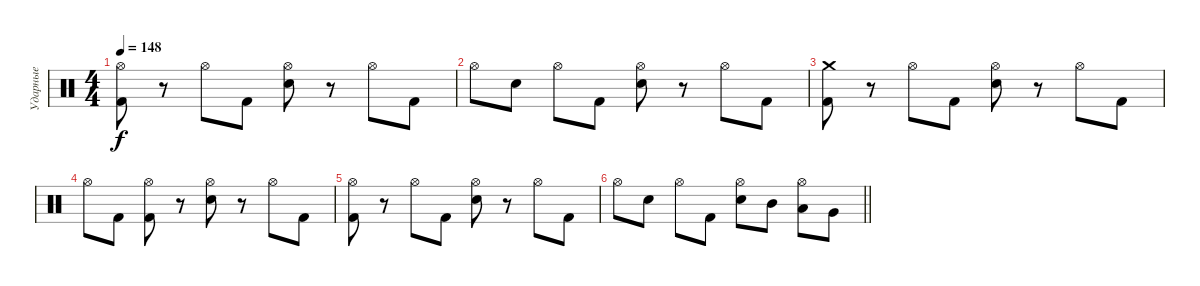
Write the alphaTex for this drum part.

\track ("Ударные" "Ударные") {instrument percussion}
\staff {score}
\articulation defaults
\ts (4 4)
\tempo 148
\clef neutral
\ks c
("Hi-Hat (open)" "Kick (hit) 2").8{dy f} r.8 "Hi-Hat (open)".8 "Kick (hit) 2".8 ("Hi-Hat (open)" "Electric Snare (hit)").8 r.8 "Hi-Hat (open)".8 "Kick (hit) 2".8 |
"Hi-Hat (open)".8 "Electric Snare (hit)".8 "Hi-Hat (open)".8 "Kick (hit) 2".8 ("Hi-Hat (open)" "Electric Snare (hit)").8 r.8 "Hi-Hat (open)".8 "Kick (hit) 2".8 |
("Crash medium (hit)" "Kick (hit) 2").8 r.8 "Hi-Hat (open)".8 "Kick (hit) 2".8 ("Hi-Hat (open)" "Electric Snare (hit)").8 r.8 "Hi-Hat (open)".8 "Kick (hit) 2".8 |
"Hi-Hat (open)".8 "Kick (hit) 2".8 ("Hi-Hat (open)" "Kick (hit) 2").8 r.8 ("Hi-Hat (open)" "Electric Snare (hit)").8 r.8 "Hi-Hat (open)".8 "Kick (hit) 2".8 |
("Hi-Hat (open)" "Kick (hit) 2").8 r.8 "Hi-Hat (open)".8 "Kick (hit) 2".8 ("Hi-Hat (open)" "Electric Snare (hit)").8 r.8 "Hi-Hat (open)".8 "Kick (hit) 2".8 |
\barLineRight lightlight "Hi-Hat (open)".8 "Electric Snare (hit)".8 "Hi-Hat (open)".8 "Kick (hit) 2".8
("Hi-Hat (open)" "Electric Snare (hit)").8 "Mid Tom (hit)".8 ("Hi-Hat (open)" "Low Tom (hit)").8 "Very Low Tom (hit)".8
